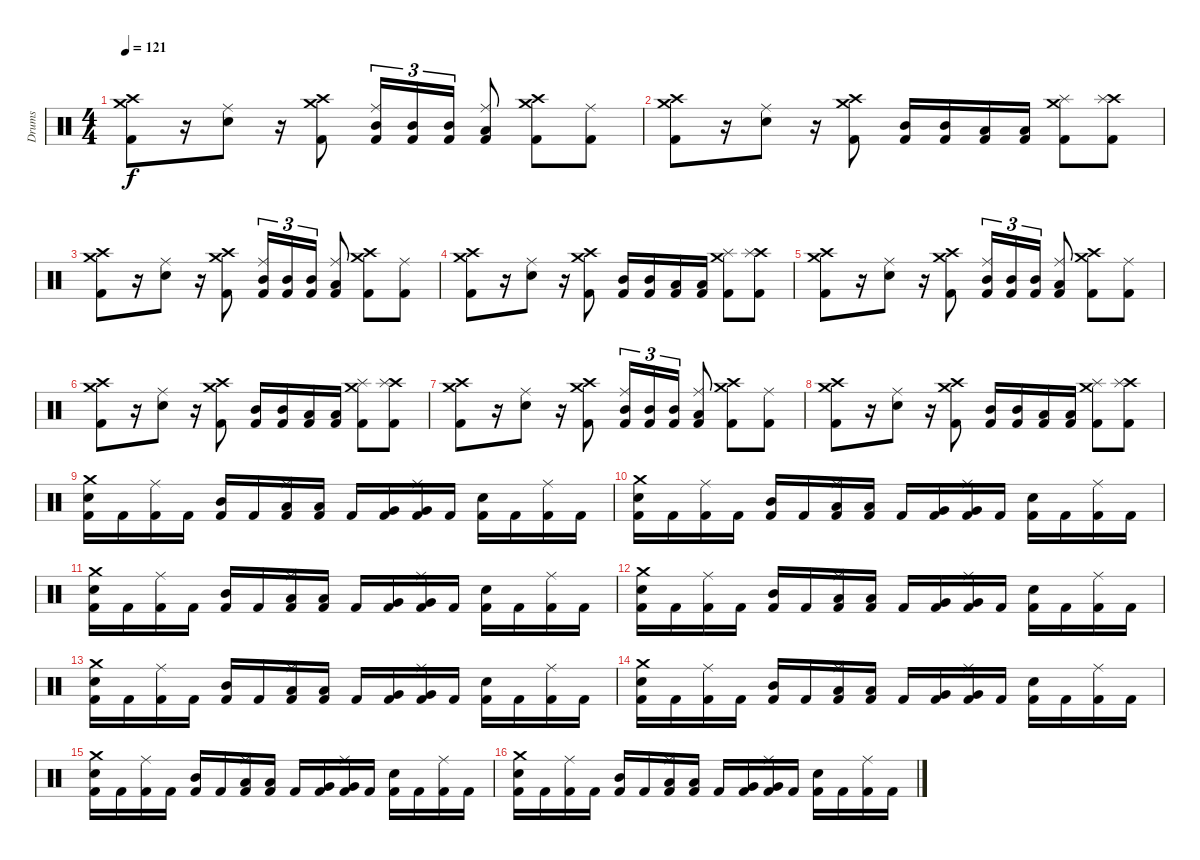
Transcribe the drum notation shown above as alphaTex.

\track ("Drums" "Drums") {instrument percussion}
\staff {score}
\articulation defaults
\ts (4 4)
\tempo 121
\clef neutral
\ks c
("Crash medium (hit)" "Crash high (hit)" "Kick (hit) 2").8{dy f} r.16 ("Ride (middle)" "Snare (hit) 2").8 r.16 ("Crash medium (hit)" "Crash high (hit)" "Kick (hit) 2").8 ("Ride (middle)" "Mid Tom (hit)" "Kick (hit) 2").16{tu (3 2)} ("Mid Tom (hit)" "Kick (hit) 2").16{tu (3 2)} ("Mid Tom (hit)" "Kick (hit) 2").16{tu (3 2)} ("Ride (middle)" "Low Tom (hit)" "Kick (hit) 2").8 ("Crash high (hit)" "Crash medium (hit)" "Kick (hit) 2").8 ("Ride (middle)" "Kick (hit) 2").8 |
("Crash medium (hit)" "Crash high (hit)" "Kick (hit) 2").8 r.16 ("Ride (middle)" "Snare (hit) 2").8 r.16 ("Crash medium (hit)" "Crash high (hit)" "Kick (hit) 2").8 ("Mid Tom (hit)" "Kick (hit) 2").16 ("Mid Tom (hit)" "Kick (hit) 2").16 ("Low Tom (hit)" "Kick (hit) 2").16 ("Low Tom (hit)" "Kick (hit) 2").16 ("Crash medium (hit)" "Splash (hit)" "Kick (hit) 2").8 ("Crash high (hit)" "Splash (hit)" "Kick (hit) 2").8 |
("Crash medium (hit)" "Crash high (hit)" "Kick (hit) 2").8 r.16 ("Ride (middle)" "Snare (hit) 2").8 r.16 ("Crash medium (hit)" "Crash high (hit)" "Kick (hit) 2").8 ("Ride (middle)" "Mid Tom (hit)" "Kick (hit) 2").16{tu (3 2)} ("Mid Tom (hit)" "Kick (hit) 2").16{tu (3 2)} ("Mid Tom (hit)" "Kick (hit) 2").16{tu (3 2)} ("Ride (middle)" "Low Tom (hit)" "Kick (hit) 2").8 ("Crash high (hit)" "Crash medium (hit)" "Kick (hit) 2").8 ("Ride (middle)" "Kick (hit) 2").8 |
("Crash medium (hit)" "Crash high (hit)" "Kick (hit) 2").8 r.16 ("Ride (middle)" "Snare (hit) 2").8 r.16 ("Crash medium (hit)" "Crash high (hit)" "Kick (hit) 2").8 ("Mid Tom (hit)" "Kick (hit) 2").16 ("Mid Tom (hit)" "Kick (hit) 2").16 ("Low Tom (hit)" "Kick (hit) 2").16 ("Low Tom (hit)" "Kick (hit) 2").16 ("Crash medium (hit)" "Splash (hit)" "Kick (hit) 2").8 ("Crash high (hit)" "Splash (hit)" "Kick (hit) 2").8 |
("Crash medium (hit)" "Crash high (hit)" "Kick (hit) 2").8 r.16 ("Ride (middle)" "Snare (hit) 2").8 r.16 ("Crash medium (hit)" "Crash high (hit)" "Kick (hit) 2").8 ("Ride (middle)" "Mid Tom (hit)" "Kick (hit) 2").16{tu (3 2)} ("Mid Tom (hit)" "Kick (hit) 2").16{tu (3 2)} ("Mid Tom (hit)" "Kick (hit) 2").16{tu (3 2)} ("Ride (middle)" "Low Tom (hit)" "Kick (hit) 2").8 ("Crash high (hit)" "Crash medium (hit)" "Kick (hit) 2").8 ("Ride (middle)" "Kick (hit) 2").8 |
("Crash medium (hit)" "Crash high (hit)" "Kick (hit) 2").8 r.16 ("Ride (middle)" "Snare (hit) 2").8 r.16 ("Crash medium (hit)" "Crash high (hit)" "Kick (hit) 2").8 ("Mid Tom (hit)" "Kick (hit) 2").16 ("Mid Tom (hit)" "Kick (hit) 2").16 ("Low Tom (hit)" "Kick (hit) 2").16 ("Low Tom (hit)" "Kick (hit) 2").16 ("Crash medium (hit)" "Splash (hit)" "Kick (hit) 2").8 ("Crash high (hit)" "Splash (hit)" "Kick (hit) 2").8 |
("Crash medium (hit)" "Crash high (hit)" "Kick (hit) 2").8 r.16 ("Ride (middle)" "Snare (hit) 2").8 r.16 ("Crash medium (hit)" "Crash high (hit)" "Kick (hit) 2").8 ("Ride (middle)" "Mid Tom (hit)" "Kick (hit) 2").16{tu (3 2)} ("Mid Tom (hit)" "Kick (hit) 2").16{tu (3 2)} ("Mid Tom (hit)" "Kick (hit) 2").16{tu (3 2)} ("Ride (middle)" "Low Tom (hit)" "Kick (hit) 2").8 ("Crash high (hit)" "Crash medium (hit)" "Kick (hit) 2").8 ("Ride (middle)" "Kick (hit) 2").8 |
("Crash medium (hit)" "Crash high (hit)" "Kick (hit) 2").8 r.16 ("Ride (middle)" "Snare (hit) 2").8 r.16 ("Crash medium (hit)" "Crash high (hit)" "Kick (hit) 2").8 ("Mid Tom (hit)" "Kick (hit) 2").16 ("Mid Tom (hit)" "Kick (hit) 2").16 ("Low Tom (hit)" "Kick (hit) 2").16 ("Low Tom (hit)" "Kick (hit) 2").16 ("Crash medium (hit)" "Splash (hit)" "Kick (hit) 2").8 ("Crash high (hit)" "Splash (hit)" "Kick (hit) 2").8 |
("Crash medium (hit)" "Snare (hit) 2" "Kick (hit) 2").16 "Kick (hit) 2".16 ("Ride (middle)" "Kick (hit) 2").16 "Kick (hit) 2".16 ("Mid Tom (hit)" "Kick (hit) 2").16 "Kick (hit) 2".16 ("Ride (middle)" "Low Tom (hit)" "Kick (hit) 2").16 ("Low Tom (hit)" "Kick (hit) 2").16 "Kick (hit) 2".16 ("Very Low Tom (hit)" "Kick (hit) 2").16 ("Ride (middle)" "Very Low Tom (hit)" "Kick (hit) 2").16 "Kick (hit) 2".16 ("Snare (hit) 2" "Kick (hit) 2").16 "Kick (hit) 2".16 ("Ride (middle)" "Kick (hit) 2").16 "Kick (hit) 2".16 |
("Crash medium (hit)" "Snare (hit) 2" "Kick (hit) 2").16 "Kick (hit) 2".16 ("Ride (middle)" "Kick (hit) 2").16 "Kick (hit) 2".16 ("Mid Tom (hit)" "Kick (hit) 2").16 "Kick (hit) 2".16 ("Ride (middle)" "Low Tom (hit)" "Kick (hit) 2").16 ("Low Tom (hit)" "Kick (hit) 2").16 "Kick (hit) 2".16 ("Very Low Tom (hit)" "Kick (hit) 2").16 ("Ride (middle)" "Very Low Tom (hit)" "Kick (hit) 2").16 "Kick (hit) 2".16 ("Snare (hit) 2" "Kick (hit) 2").16 "Kick (hit) 2".16 ("Ride (middle)" "Kick (hit) 2").16 "Kick (hit) 2".16 |
("Crash medium (hit)" "Snare (hit) 2" "Kick (hit) 2").16 "Kick (hit) 2".16 ("Ride (middle)" "Kick (hit) 2").16 "Kick (hit) 2".16 ("Mid Tom (hit)" "Kick (hit) 2").16 "Kick (hit) 2".16 ("Ride (middle)" "Low Tom (hit)" "Kick (hit) 2").16 ("Low Tom (hit)" "Kick (hit) 2").16 "Kick (hit) 2".16 ("Very Low Tom (hit)" "Kick (hit) 2").16 ("Ride (middle)" "Very Low Tom (hit)" "Kick (hit) 2").16 "Kick (hit) 2".16 ("Snare (hit) 2" "Kick (hit) 2").16 "Kick (hit) 2".16 ("Ride (middle)" "Kick (hit) 2").16 "Kick (hit) 2".16 |
("Crash medium (hit)" "Snare (hit) 2" "Kick (hit) 2").16 "Kick (hit) 2".16 ("Ride (middle)" "Kick (hit) 2").16 "Kick (hit) 2".16 ("Mid Tom (hit)" "Kick (hit) 2").16 "Kick (hit) 2".16 ("Ride (middle)" "Low Tom (hit)" "Kick (hit) 2").16 ("Low Tom (hit)" "Kick (hit) 2").16 "Kick (hit) 2".16 ("Very Low Tom (hit)" "Kick (hit) 2").16 ("Ride (middle)" "Very Low Tom (hit)" "Kick (hit) 2").16 "Kick (hit) 2".16 ("Snare (hit) 2" "Kick (hit) 2").16 "Kick (hit) 2".16 ("Ride (middle)" "Kick (hit) 2").16 "Kick (hit) 2".16 |
("Crash medium (hit)" "Snare (hit) 2" "Kick (hit) 2").16 "Kick (hit) 2".16 ("Ride (middle)" "Kick (hit) 2").16 "Kick (hit) 2".16 ("Mid Tom (hit)" "Kick (hit) 2").16 "Kick (hit) 2".16 ("Ride (middle)" "Low Tom (hit)" "Kick (hit) 2").16 ("Low Tom (hit)" "Kick (hit) 2").16 "Kick (hit) 2".16 ("Very Low Tom (hit)" "Kick (hit) 2").16 ("Ride (middle)" "Very Low Tom (hit)" "Kick (hit) 2").16 "Kick (hit) 2".16 ("Snare (hit) 2" "Kick (hit) 2").16 "Kick (hit) 2".16 ("Ride (middle)" "Kick (hit) 2").16 "Kick (hit) 2".16 |
("Crash medium (hit)" "Snare (hit) 2" "Kick (hit) 2").16 "Kick (hit) 2".16 ("Ride (middle)" "Kick (hit) 2").16 "Kick (hit) 2".16 ("Mid Tom (hit)" "Kick (hit) 2").16 "Kick (hit) 2".16 ("Ride (middle)" "Low Tom (hit)" "Kick (hit) 2").16 ("Low Tom (hit)" "Kick (hit) 2").16 "Kick (hit) 2".16 ("Very Low Tom (hit)" "Kick (hit) 2").16 ("Ride (middle)" "Very Low Tom (hit)" "Kick (hit) 2").16 "Kick (hit) 2".16 ("Snare (hit) 2" "Kick (hit) 2").16 "Kick (hit) 2".16 ("Ride (middle)" "Kick (hit) 2").16 "Kick (hit) 2".16 |
("Crash medium (hit)" "Snare (hit) 2" "Kick (hit) 2").16 "Kick (hit) 2".16 ("Ride (middle)" "Kick (hit) 2").16 "Kick (hit) 2".16 ("Mid Tom (hit)" "Kick (hit) 2").16 "Kick (hit) 2".16 ("Ride (middle)" "Low Tom (hit)" "Kick (hit) 2").16 ("Low Tom (hit)" "Kick (hit) 2").16 "Kick (hit) 2".16 ("Very Low Tom (hit)" "Kick (hit) 2").16 ("Ride (middle)" "Very Low Tom (hit)" "Kick (hit) 2").16 "Kick (hit) 2".16 ("Snare (hit) 2" "Kick (hit) 2").16 "Kick (hit) 2".16 ("Ride (middle)" "Kick (hit) 2").16 "Kick (hit) 2".16 |
("Crash medium (hit)" "Snare (hit) 2" "Kick (hit) 2").16 "Kick (hit) 2".16 ("Ride (middle)" "Kick (hit) 2").16 "Kick (hit) 2".16 ("Mid Tom (hit)" "Kick (hit) 2").16 "Kick (hit) 2".16 ("Ride (middle)" "Low Tom (hit)" "Kick (hit) 2").16 ("Low Tom (hit)" "Kick (hit) 2").16 "Kick (hit) 2".16 ("Very Low Tom (hit)" "Kick (hit) 2").16 ("Ride (middle)" "Very Low Tom (hit)" "Kick (hit) 2").16 "Kick (hit) 2".16 ("Snare (hit) 2" "Kick (hit) 2").16 "Kick (hit) 2".16 ("Ride (middle)" "Kick (hit) 2").16 "Kick (hit) 2".16
